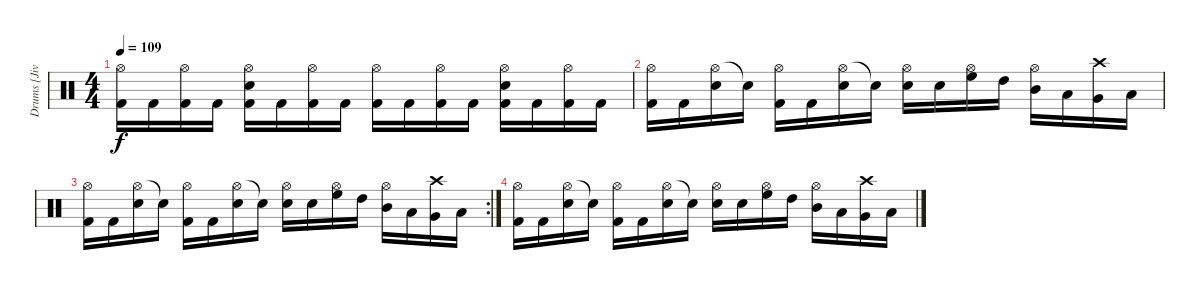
\track ("Drums [Jivarp]" "Drums [Jiv") {instrument percussion}
\staff {score}
\articulation defaults
\ts (4 4)
\tempo 109
\clef neutral
\ks c
("Hi-Hat (open)" "Kick (hit) 2").16{dy f} "Kick (hit) 2".16 ("Hi-Hat (open)" "Kick (hit) 2").16 "Kick (hit) 2".16 ("Hi-Hat (open)" "Electric Snare (hit)" "Kick (hit) 2").16 "Kick (hit) 2".16 ("Hi-Hat (open)" "Kick (hit) 2").16 "Kick (hit) 2".16 ("Hi-Hat (open)" "Kick (hit) 2").16 "Kick (hit) 2".16 ("Hi-Hat (open)" "Kick (hit) 2").16 "Kick (hit) 2".16 ("Hi-Hat (open)" "Electric Snare (hit)" "Kick (hit) 2").16 "Kick (hit) 2".16 ("Hi-Hat (open)" "Kick (hit) 2").16 "Kick (hit) 2".16 |
("Hi-Hat (open)" "Kick (hit) 2").16 "Kick (hit) 2".16 ("Hi-Hat (open)" "Electric Snare (hit)").16 "Electric Snare (hit)"{t}.16 ("Hi-Hat (open)" "Kick (hit) 2").16 "Kick (hit) 2".16 ("Hi-Hat (open)" "Electric Snare (hit)").16 "Electric Snare (hit)"{t}.16 ("Hi-Hat (open)" "Electric Snare (hit)").16 "Electric Snare (hit)".16 ("Hi-Hat (open)" "High Floor Tom (hit)").16 "High Tom (hit)".16 ("Hi-Hat (open)" "Mid Tom (hit)").16 "Low Tom (hit)".16 ("Crash high (hit)" "Very Low Tom (hit)").16 "Low Tom (hit)".16 |
\rc 2
("Hi-Hat (open)" "Kick (hit) 2").16 "Kick (hit) 2".16 ("Hi-Hat (open)" "Electric Snare (hit)").16 "Electric Snare (hit)"{t}.16 ("Hi-Hat (open)" "Kick (hit) 2").16 "Kick (hit) 2".16 ("Hi-Hat (open)" "Electric Snare (hit)").16 "Electric Snare (hit)"{t}.16 ("Hi-Hat (open)" "Electric Snare (hit)").16 "Electric Snare (hit)".16 ("Hi-Hat (open)" "High Floor Tom (hit)").16 "High Tom (hit)".16 ("Hi-Hat (open)" "Mid Tom (hit)").16 "Low Tom (hit)".16 ("Crash high (hit)" "Very Low Tom (hit)").16 "Low Tom (hit)".16 |
("Hi-Hat (open)" "Kick (hit) 2").16 "Kick (hit) 2".16 ("Hi-Hat (open)" "Electric Snare (hit)").16 "Electric Snare (hit)"{t}.16 ("Hi-Hat (open)" "Kick (hit) 2").16 "Kick (hit) 2".16 ("Hi-Hat (open)" "Electric Snare (hit)").16 "Electric Snare (hit)"{t}.16 ("Hi-Hat (open)" "Electric Snare (hit)").16 "Electric Snare (hit)".16 ("Hi-Hat (open)" "High Floor Tom (hit)").16 "High Tom (hit)".16 ("Hi-Hat (open)" "Mid Tom (hit)").16 "Low Tom (hit)".16 ("Crash high (hit)" "Very Low Tom (hit)").16 "Low Tom (hit)".16
